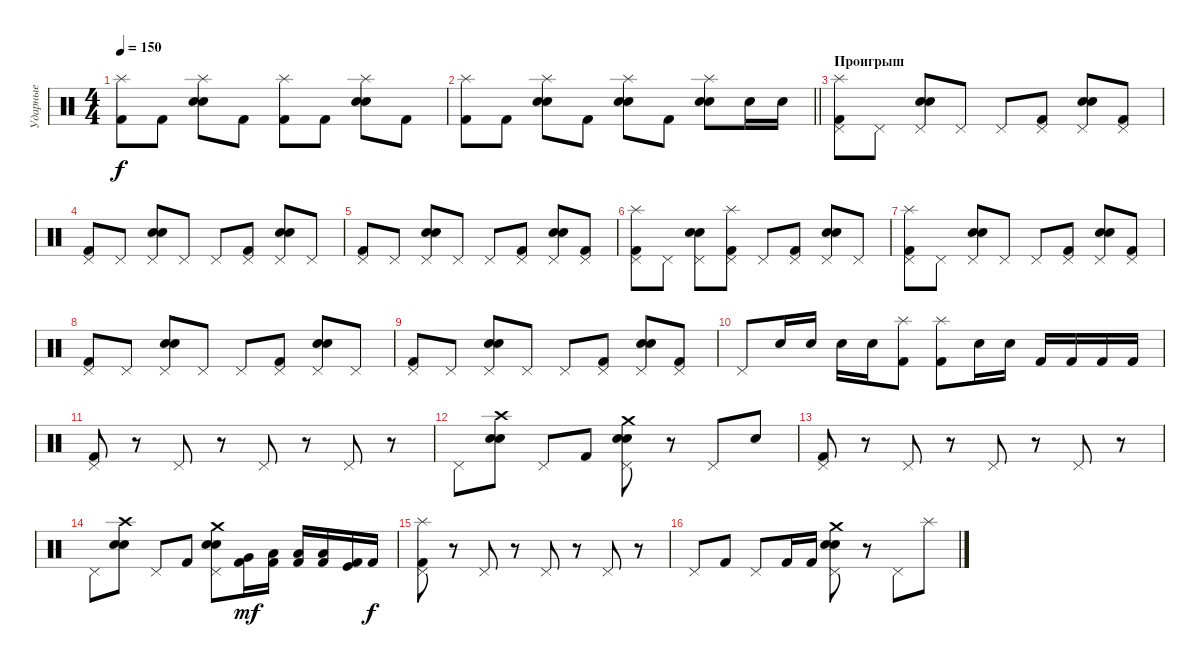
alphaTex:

\track ("Ударные" "Ударные") {instrument percussion}
\staff {score}
\articulation defaults
\ts (4 4)
\tempo 150
\clef neutral
\ks c
("Splash (hit)" "Kick (hit) 2").8{dy f} "Kick (hit) 2".8 ("Splash (hit)" "Electric Snare (hit)" "Snare (hit) 2").8 "Kick (hit) 2".8 ("Splash (hit)" "Kick (hit) 2").8 "Kick (hit) 2".8 ("Splash (hit)" "Electric Snare (hit)" "Snare (hit) 2").8 "Kick (hit) 2".8 |
\barLineRight lightlight
("Splash (hit)" "Kick (hit) 2").8 "Kick (hit) 2".8 ("Splash (hit)" "Electric Snare (hit)" "Snare (hit) 2").8 "Kick (hit) 2".8 ("Splash (hit)" "Electric Snare (hit)" "Snare (hit) 2").8 "Kick (hit) 2".8 ("Splash (hit)" "Electric Snare (hit)" "Snare (hit) 2").8 "Electric Snare (hit)".16 "Electric Snare (hit)".16 |
\section ("" "Проигрыш")
("Pedal Hi-Hat (hit)" "Splash (hit)" "Kick (hit) 2").8 "Pedal Hi-Hat (hit)".8 ("Pedal Hi-Hat (hit)" "Electric Snare (hit)" "Snare (hit) 2").8 "Pedal Hi-Hat (hit)".8 "Pedal Hi-Hat (hit)".8 ("Pedal Hi-Hat (hit)" "Kick (hit) 2").8 ("Pedal Hi-Hat (hit)" "Electric Snare (hit)" "Snare (hit) 2").8 ("Pedal Hi-Hat (hit)" "Kick (hit) 2").8 |
("Pedal Hi-Hat (hit)" "Kick (hit) 2").8 "Pedal Hi-Hat (hit)".8 ("Pedal Hi-Hat (hit)" "Electric Snare (hit)" "Snare (hit) 2").8 "Pedal Hi-Hat (hit)".8 "Pedal Hi-Hat (hit)".8 ("Pedal Hi-Hat (hit)" "Kick (hit) 2").8 ("Pedal Hi-Hat (hit)" "Electric Snare (hit)" "Snare (hit) 2").8 "Pedal Hi-Hat (hit)".8 |
("Pedal Hi-Hat (hit)" "Kick (hit) 2").8 "Pedal Hi-Hat (hit)".8 ("Pedal Hi-Hat (hit)" "Electric Snare (hit)" "Snare (hit) 2").8 "Pedal Hi-Hat (hit)".8 "Pedal Hi-Hat (hit)".8 ("Pedal Hi-Hat (hit)" "Kick (hit) 2").8 ("Pedal Hi-Hat (hit)" "Electric Snare (hit)" "Snare (hit) 2").8 ("Pedal Hi-Hat (hit)" "Kick (hit) 2").8 |
("Pedal Hi-Hat (hit)" "Splash (hit)" "Kick (hit) 2").8 "Pedal Hi-Hat (hit)".8 ("Pedal Hi-Hat (hit)" "Electric Snare (hit)" "Snare (hit) 2").8 ("Pedal Hi-Hat (hit)" "Splash (hit)" "Kick (hit) 2").8 "Pedal Hi-Hat (hit)".8 ("Pedal Hi-Hat (hit)" "Kick (hit) 2").8 ("Pedal Hi-Hat (hit)" "Electric Snare (hit)" "Snare (hit) 2").8 "Pedal Hi-Hat (hit)".8 |
("Pedal Hi-Hat (hit)" "Splash (hit)" "Kick (hit) 2").8 "Pedal Hi-Hat (hit)".8 ("Pedal Hi-Hat (hit)" "Electric Snare (hit)" "Snare (hit) 2").8 "Pedal Hi-Hat (hit)".8 "Pedal Hi-Hat (hit)".8 ("Pedal Hi-Hat (hit)" "Kick (hit) 2").8 ("Pedal Hi-Hat (hit)" "Electric Snare (hit)" "Snare (hit) 2").8 ("Pedal Hi-Hat (hit)" "Kick (hit) 2").8 |
("Pedal Hi-Hat (hit)" "Kick (hit) 2").8 "Pedal Hi-Hat (hit)".8 ("Pedal Hi-Hat (hit)" "Electric Snare (hit)" "Snare (hit) 2").8 "Pedal Hi-Hat (hit)".8 "Pedal Hi-Hat (hit)".8 ("Pedal Hi-Hat (hit)" "Kick (hit) 2").8 ("Pedal Hi-Hat (hit)" "Electric Snare (hit)" "Snare (hit) 2").8 "Pedal Hi-Hat (hit)".8 |
("Pedal Hi-Hat (hit)" "Kick (hit) 2").8 "Pedal Hi-Hat (hit)".8 ("Pedal Hi-Hat (hit)" "Electric Snare (hit)" "Snare (hit) 2").8 "Pedal Hi-Hat (hit)".8 "Pedal Hi-Hat (hit)".8 ("Pedal Hi-Hat (hit)" "Kick (hit) 2").8 ("Pedal Hi-Hat (hit)" "Electric Snare (hit)" "Snare (hit) 2").8 ("Pedal Hi-Hat (hit)" "Kick (hit) 2").8 |
"Pedal Hi-Hat (hit)".8 "Electric Snare (hit)".16 "Electric Snare (hit)".16 "Electric Snare (hit)".16 "Electric Snare (hit)".16 ("Splash (hit)" "Kick (hit) 2").8 ("Splash (hit)" "Kick (hit) 2").8 "Electric Snare (hit)".16 "Electric Snare (hit)".16 "Kick (hit) 2".16 "Kick (hit) 2".16 "Kick (hit) 2".16 "Kick (hit) 2".16 |
("Pedal Hi-Hat (hit)" "Kick (hit) 2").8 r.8 "Pedal Hi-Hat (hit)".8 r.8 "Pedal Hi-Hat (hit)".8 r.8 "Pedal Hi-Hat (hit)".8 r.8 |
"Pedal Hi-Hat (hit)".8 ("Crash high (hit)" "Electric Snare (hit)" "Snare (hit) 2").8 "Pedal Hi-Hat (hit)".8 "Kick (hit) 2".8 ("Pedal Hi-Hat (hit)" "Crash medium (hit)" "Electric Snare (hit)" "Snare (hit) 2").8 r.8 "Pedal Hi-Hat (hit)".8 "Electric Snare (hit)".8 |
("Pedal Hi-Hat (hit)" "Kick (hit) 2").8 r.8 "Pedal Hi-Hat (hit)".8 r.8 "Pedal Hi-Hat (hit)".8 r.8 "Pedal Hi-Hat (hit)".8 r.8 |
"Pedal Hi-Hat (hit)".8 ("Crash high (hit)" "Electric Snare (hit)" "Snare (hit) 2").8 "Pedal Hi-Hat (hit)".8 "Kick (hit) 2".8 ("Pedal Hi-Hat (hit)" "Crash medium (hit)" "Electric Snare (hit)" "Snare (hit) 2").8 ("Very Low Tom (hit)" "Kick (hit) 2").16{dy mf} ("Low Tom (hit)" "Kick (hit) 2").16 ("Low Floor Tom (hit)" "Kick (hit) 2").16 ("Low Tom (hit)" "Kick (hit) 2").16 ("Kick (hit)" "Kick (hit) 2").16 "Kick (hit) 2".16{dy f} |
("Pedal Hi-Hat (hit)" "Splash (hit)" "Kick (hit) 2").8 r.8 "Pedal Hi-Hat (hit)".8 r.8 "Pedal Hi-Hat (hit)".8 r.8 "Pedal Hi-Hat (hit)".8 r.8 |
"Pedal Hi-Hat (hit)".8 "Kick (hit) 2".8 "Pedal Hi-Hat (hit)".8 "Kick (hit) 2".16 "Kick (hit) 2".16 ("Pedal Hi-Hat (hit)" "Crash medium (hit)" "Electric Snare (hit)" "Snare (hit) 2").8 r.8 "Pedal Hi-Hat (hit)".8 "Splash (hit)".8
